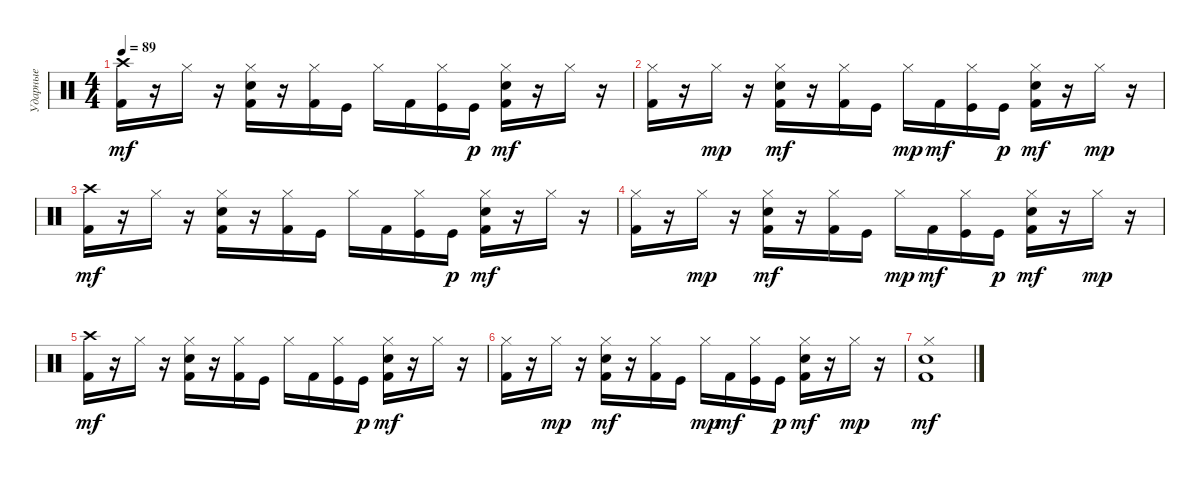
\track ("Ударные" "Ударные") {instrument percussion}
\staff {score}
\articulation defaults
\ts (4 4)
\tempo 89
\clef neutral
\ks c
("Crash high (hit)" "Kick (hit) 2").16{dy mf} r.16 "Hi-Hat (closed)".16 r.16 ("Hi-Hat (closed)" "Snare (hit) 2" "Kick (hit) 2").16 r.16 ("Hi-Hat (closed)" "Kick (hit) 2").16 "Kick (hit)".16 "Hi-Hat (closed)".16 "Kick (hit) 2".16 ("Hi-Hat (closed)" "Kick (hit)").16 "Kick (hit)".16{dy p} ("Hi-Hat (closed)" "Snare (hit) 2" "Kick (hit) 2").16{dy mf} r.16 "Hi-Hat (closed)".16 r.16 |
("Hi-Hat (closed)" "Kick (hit) 2").16 r.16 "Hi-Hat (closed)".16{dy mp} r.16 ("Hi-Hat (closed)" "Snare (hit) 2" "Kick (hit) 2").16{dy mf} r.16 ("Hi-Hat (closed)" "Kick (hit) 2").16 "Kick (hit)".16 "Hi-Hat (closed)".16{dy mp} "Kick (hit) 2".16{dy mf} ("Hi-Hat (closed)" "Kick (hit)").16 "Kick (hit)".16{dy p} ("Hi-Hat (closed)" "Snare (hit) 2" "Kick (hit) 2").16{dy mf} r.16 "Hi-Hat (closed)".16{dy mp} r.16 |
("Crash high (hit)" "Kick (hit) 2").16{dy mf} r.16 "Hi-Hat (closed)".16 r.16 ("Hi-Hat (closed)" "Snare (hit) 2" "Kick (hit) 2").16 r.16 ("Hi-Hat (closed)" "Kick (hit) 2").16 "Kick (hit)".16 "Hi-Hat (closed)".16 "Kick (hit) 2".16 ("Hi-Hat (closed)" "Kick (hit)").16 "Kick (hit)".16{dy p} ("Hi-Hat (closed)" "Snare (hit) 2" "Kick (hit) 2").16{dy mf} r.16 "Hi-Hat (closed)".16 r.16 |
("Hi-Hat (closed)" "Kick (hit) 2").16 r.16 "Hi-Hat (closed)".16{dy mp} r.16 ("Hi-Hat (closed)" "Snare (hit) 2" "Kick (hit) 2").16{dy mf} r.16 ("Hi-Hat (closed)" "Kick (hit) 2").16 "Kick (hit)".16 "Hi-Hat (closed)".16{dy mp} "Kick (hit) 2".16{dy mf} ("Hi-Hat (closed)" "Kick (hit)").16 "Kick (hit)".16{dy p} ("Hi-Hat (closed)" "Snare (hit) 2" "Kick (hit) 2").16{dy mf} r.16 "Hi-Hat (closed)".16{dy mp} r.16 |
("Crash high (hit)" "Kick (hit) 2").16{dy mf} r.16 "Hi-Hat (closed)".16 r.16 ("Hi-Hat (closed)" "Snare (hit) 2" "Kick (hit) 2").16 r.16 ("Hi-Hat (closed)" "Kick (hit) 2").16 "Kick (hit)".16 "Hi-Hat (closed)".16 "Kick (hit) 2".16 ("Hi-Hat (closed)" "Kick (hit)").16 "Kick (hit)".16{dy p} ("Hi-Hat (closed)" "Snare (hit) 2" "Kick (hit) 2").16{dy mf} r.16 "Hi-Hat (closed)".16 r.16 |
("Hi-Hat (closed)" "Kick (hit) 2").16 r.16 "Hi-Hat (closed)".16{dy mp} r.16 ("Hi-Hat (closed)" "Snare (hit) 2" "Kick (hit) 2").16{dy mf} r.16 ("Hi-Hat (closed)" "Kick (hit) 2").16 "Kick (hit)".16 "Hi-Hat (closed)".16{dy mp} "Kick (hit) 2".16{dy mf} ("Hi-Hat (closed)" "Kick (hit)").16 "Kick (hit)".16{dy p} ("Hi-Hat (closed)" "Snare (hit) 2" "Kick (hit) 2").16{dy mf} r.16 "Hi-Hat (closed)".16{dy mp} r.16 |
("Hi-Hat (closed)" "Snare (hit) 2" "Kick (hit) 2").1{dy mf}
